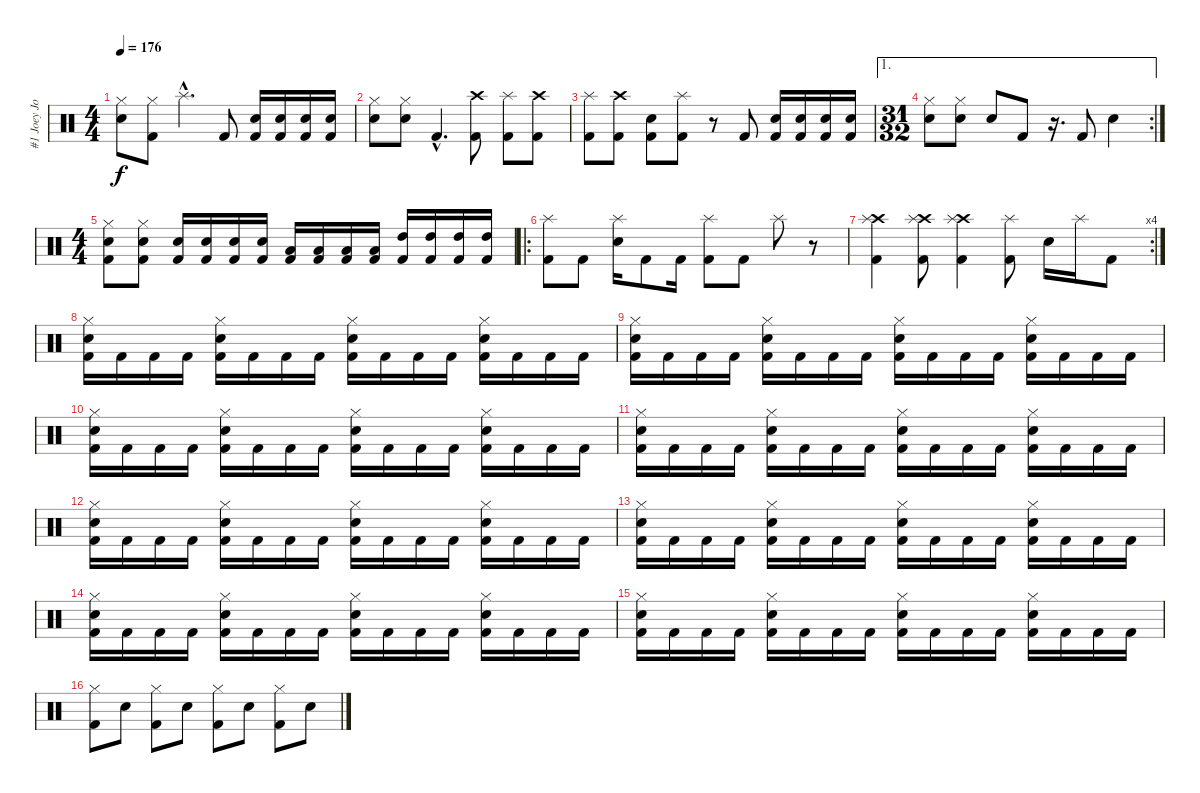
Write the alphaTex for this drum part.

\track ("#1 Joey Jordison - Drums" "#1 Joey Jo") {instrument percussion}
\staff {score}
\articulation defaults
\ts (4 4)
\tempo 176
\clef neutral
\ks c
("Hi-Hat (closed)" "Snare (hit) 2").8{dy f} ("Hi-Hat (closed)" "Kick (hit) 2").8 "Splash (hit)"{hac}.4{d} "Kick (hit) 2".8 ("Snare (hit) 2" "Kick (hit) 2").16 ("Snare (hit) 2" "Kick (hit) 2").16 ("Snare (hit) 2" "Kick (hit) 2").16 ("Snare (hit) 2" "Kick (hit) 2").16 |
("Hi-Hat (closed)" "Snare (hit) 2").8 ("Hi-Hat (closed)" "Snare (hit) 2").8 "Kick (hit) 2"{hac}.4{d} ("Crash high (hit)" "Kick (hit) 2").8 ("Splash (hit)" "Kick (hit) 2").8 ("Crash high (hit)" "Kick (hit) 2").8 |
("Splash (hit)" "Kick (hit) 2").8 ("Crash high (hit)" "Kick (hit) 2").8 ("Snare (hit) 2" "Kick (hit) 2").8 ("Splash (hit)" "Kick (hit) 2").8 r.8 "Kick (hit) 2".8 ("Snare (hit) 2" "Kick (hit) 2").16 ("Snare (hit) 2" "Kick (hit) 2").16 ("Snare (hit) 2" "Kick (hit) 2").16 ("Snare (hit) 2" "Kick (hit) 2").16 |
\ae 1
\rc 2
\ts (31 32)
("Hi-Hat (closed)" "Snare (hit) 2").8 ("Hi-Hat (closed)" "Snare (hit) 2").8 "Snare (hit) 2".8 "Kick (hit) 2".8 r.16{d} "Kick (hit) 2".8 "Snare (hit) 2".4 |
\ts (4 4)
("Hi-Hat (closed)" "Snare (hit) 2" "Kick (hit) 2").8 ("Hi-Hat (closed)" "Snare (hit) 2" "Kick (hit) 2").8 ("Snare (hit) 2" "Kick (hit) 2").16 ("Snare (hit) 2" "Kick (hit) 2").16 ("Snare (hit) 2" "Kick (hit) 2").16 ("Snare (hit) 2" "Kick (hit) 2").16 ("Low Tom (hit)" "Kick (hit) 2").16 ("Low Tom (hit)" "Kick (hit) 2").16 ("Low Tom (hit)" "Kick (hit) 2").16 ("Low Tom (hit)" "Kick (hit) 2").16 ("High Tom (hit)" "Kick (hit) 2").16 ("High Tom (hit)" "Kick (hit) 2").16 ("High Tom (hit)" "Kick (hit) 2").16 ("High Tom (hit)" "Kick (hit) 2").16 |
\ro
("Splash (hit)" "Kick (hit) 2").8 "Kick (hit) 2".8 ("Splash (hit)" "Snare (hit) 2").16 "Kick (hit) 2".8 "Kick (hit) 2".16 ("Splash (hit)" "Kick (hit) 2").8 "Kick (hit) 2".8 "Splash (hit)".8 r.8 |
\rc 4
("Kick (hit) 2" "Crash high (hit)" "Splash (hit)").4 ("Kick (hit) 2" "Crash high (hit)" "Splash (hit)").8 ("Crash high (hit)" "Splash (hit)" "Kick (hit) 2").4 ("Splash (hit)" "Kick (hit) 2").8 "Snare (hit) 2".16 "Splash (hit)".16 "Kick (hit) 2".8 |
("Hi-Hat (closed)" "Snare (hit) 2" "Kick (hit) 2").16 "Kick (hit) 2".16 "Kick (hit) 2".16 "Kick (hit) 2".16 ("Hi-Hat (closed)" "Snare (hit) 2" "Kick (hit) 2").16 "Kick (hit) 2".16 "Kick (hit) 2".16 "Kick (hit) 2".16 ("Hi-Hat (closed)" "Snare (hit) 2" "Kick (hit) 2").16 "Kick (hit) 2".16 "Kick (hit) 2".16 "Kick (hit) 2".16 ("Hi-Hat (closed)" "Snare (hit) 2" "Kick (hit) 2").16 "Kick (hit) 2".16 "Kick (hit) 2".16 "Kick (hit) 2".16 |
("Hi-Hat (closed)" "Snare (hit) 2" "Kick (hit) 2").16 "Kick (hit) 2".16 "Kick (hit) 2".16 "Kick (hit) 2".16 ("Hi-Hat (closed)" "Snare (hit) 2" "Kick (hit) 2").16 "Kick (hit) 2".16 "Kick (hit) 2".16 "Kick (hit) 2".16 ("Hi-Hat (closed)" "Snare (hit) 2" "Kick (hit) 2").16 "Kick (hit) 2".16 "Kick (hit) 2".16 "Kick (hit) 2".16 ("Hi-Hat (closed)" "Snare (hit) 2" "Kick (hit) 2").16 "Kick (hit) 2".16 "Kick (hit) 2".16 "Kick (hit) 2".16 |
("Hi-Hat (closed)" "Snare (hit) 2" "Kick (hit) 2").16 "Kick (hit) 2".16 "Kick (hit) 2".16 "Kick (hit) 2".16 ("Hi-Hat (closed)" "Snare (hit) 2" "Kick (hit) 2").16 "Kick (hit) 2".16 "Kick (hit) 2".16 "Kick (hit) 2".16 ("Hi-Hat (closed)" "Snare (hit) 2" "Kick (hit) 2").16 "Kick (hit) 2".16 "Kick (hit) 2".16 "Kick (hit) 2".16 ("Hi-Hat (closed)" "Snare (hit) 2" "Kick (hit) 2").16 "Kick (hit) 2".16 "Kick (hit) 2".16 "Kick (hit) 2".16 |
("Hi-Hat (closed)" "Snare (hit) 2" "Kick (hit) 2").16 "Kick (hit) 2".16 "Kick (hit) 2".16 "Kick (hit) 2".16 ("Hi-Hat (closed)" "Snare (hit) 2" "Kick (hit) 2").16 "Kick (hit) 2".16 "Kick (hit) 2".16 "Kick (hit) 2".16 ("Hi-Hat (closed)" "Snare (hit) 2" "Kick (hit) 2").16 "Kick (hit) 2".16 "Kick (hit) 2".16 "Kick (hit) 2".16 ("Hi-Hat (closed)" "Snare (hit) 2" "Kick (hit) 2").16 "Kick (hit) 2".16 "Kick (hit) 2".16 "Kick (hit) 2".16 |
("Hi-Hat (closed)" "Snare (hit) 2" "Kick (hit) 2").16 "Kick (hit) 2".16 "Kick (hit) 2".16 "Kick (hit) 2".16 ("Hi-Hat (closed)" "Snare (hit) 2" "Kick (hit) 2").16 "Kick (hit) 2".16 "Kick (hit) 2".16 "Kick (hit) 2".16 ("Hi-Hat (closed)" "Snare (hit) 2" "Kick (hit) 2").16 "Kick (hit) 2".16 "Kick (hit) 2".16 "Kick (hit) 2".16 ("Hi-Hat (closed)" "Snare (hit) 2" "Kick (hit) 2").16 "Kick (hit) 2".16 "Kick (hit) 2".16 "Kick (hit) 2".16 |
("Hi-Hat (closed)" "Snare (hit) 2" "Kick (hit) 2").16 "Kick (hit) 2".16 "Kick (hit) 2".16 "Kick (hit) 2".16 ("Hi-Hat (closed)" "Snare (hit) 2" "Kick (hit) 2").16 "Kick (hit) 2".16 "Kick (hit) 2".16 "Kick (hit) 2".16 ("Hi-Hat (closed)" "Snare (hit) 2" "Kick (hit) 2").16 "Kick (hit) 2".16 "Kick (hit) 2".16 "Kick (hit) 2".16 ("Hi-Hat (closed)" "Snare (hit) 2" "Kick (hit) 2").16 "Kick (hit) 2".16 "Kick (hit) 2".16 "Kick (hit) 2".16 |
("Hi-Hat (closed)" "Snare (hit) 2" "Kick (hit) 2").16 "Kick (hit) 2".16 "Kick (hit) 2".16 "Kick (hit) 2".16 ("Hi-Hat (closed)" "Snare (hit) 2" "Kick (hit) 2").16 "Kick (hit) 2".16 "Kick (hit) 2".16 "Kick (hit) 2".16 ("Hi-Hat (closed)" "Snare (hit) 2" "Kick (hit) 2").16 "Kick (hit) 2".16 "Kick (hit) 2".16 "Kick (hit) 2".16 ("Hi-Hat (closed)" "Snare (hit) 2" "Kick (hit) 2").16 "Kick (hit) 2".16 "Kick (hit) 2".16 "Kick (hit) 2".16 |
("Hi-Hat (closed)" "Snare (hit) 2" "Kick (hit) 2").16 "Kick (hit) 2".16 "Kick (hit) 2".16 "Kick (hit) 2".16 ("Hi-Hat (closed)" "Snare (hit) 2" "Kick (hit) 2").16 "Kick (hit) 2".16 "Kick (hit) 2".16 "Kick (hit) 2".16 ("Hi-Hat (closed)" "Snare (hit) 2" "Kick (hit) 2").16 "Kick (hit) 2".16 "Kick (hit) 2".16 "Kick (hit) 2".16 ("Hi-Hat (closed)" "Snare (hit) 2" "Kick (hit) 2").16 "Kick (hit) 2".16 "Kick (hit) 2".16 "Kick (hit) 2".16 |
("Hi-Hat (closed)" "Kick (hit) 2").8 "Snare (hit) 2".8 ("Hi-Hat (closed)" "Kick (hit) 2").8 "Snare (hit) 2".8 ("Hi-Hat (closed)" "Kick (hit) 2").8 "Snare (hit) 2".8 ("Hi-Hat (closed)" "Kick (hit) 2").8 "Snare (hit) 2".8
